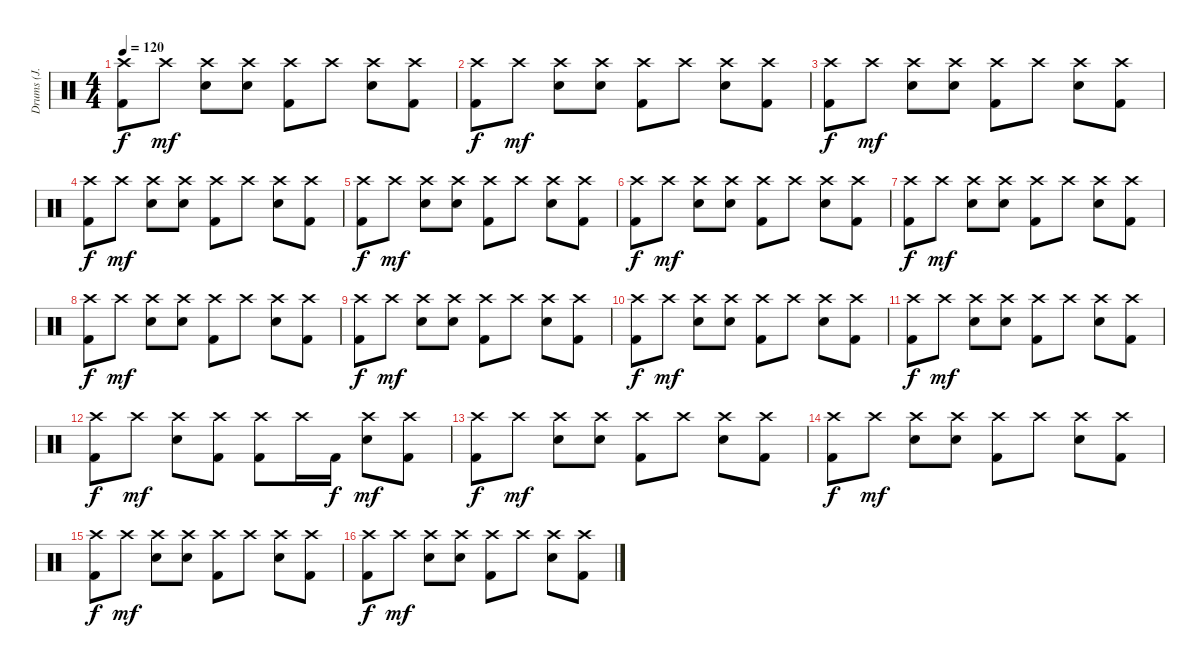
\track ("Drums (J. Cramer)" "Drums (J. ") {instrument percussion}
\staff {score}
\articulation defaults
\ts (4 4)
\tempo 120
\clef neutral
\ks c
("Crash high (hit)" "Kick (hit) 2").8{dy f} "Crash high (hit)".8{dy mf} ("Crash high (hit)" "Electric Snare (hit)").8 ("Crash high (hit)" "Electric Snare (hit)").8 ("Crash high (hit)" "Kick (hit) 2").8 "Crash high (hit)".8 ("Crash high (hit)" "Electric Snare (hit)").8 ("Crash high (hit)" "Kick (hit) 2").8 |
("Crash high (hit)" "Kick (hit) 2").8{dy f} "Crash high (hit)".8{dy mf} ("Crash high (hit)" "Electric Snare (hit)").8 ("Crash high (hit)" "Electric Snare (hit)").8 ("Crash high (hit)" "Kick (hit) 2").8 "Crash high (hit)".8 ("Crash high (hit)" "Electric Snare (hit)").8 ("Crash high (hit)" "Kick (hit) 2").8 |
("Crash high (hit)" "Kick (hit) 2").8{dy f} "Crash high (hit)".8{dy mf} ("Crash high (hit)" "Electric Snare (hit)").8 ("Crash high (hit)" "Electric Snare (hit)").8 ("Crash high (hit)" "Kick (hit) 2").8 "Crash high (hit)".8 ("Crash high (hit)" "Electric Snare (hit)").8 ("Crash high (hit)" "Kick (hit) 2").8 |
("Crash high (hit)" "Kick (hit) 2").8{dy f} "Crash high (hit)".8{dy mf} ("Crash high (hit)" "Electric Snare (hit)").8 ("Crash high (hit)" "Electric Snare (hit)").8 ("Crash high (hit)" "Kick (hit) 2").8 "Crash high (hit)".8 ("Crash high (hit)" "Electric Snare (hit)").8 ("Crash high (hit)" "Kick (hit) 2").8 |
("Crash high (hit)" "Kick (hit) 2").8{dy f} "Crash high (hit)".8{dy mf} ("Crash high (hit)" "Electric Snare (hit)").8 ("Crash high (hit)" "Electric Snare (hit)").8 ("Crash high (hit)" "Kick (hit) 2").8 "Crash high (hit)".8 ("Crash high (hit)" "Electric Snare (hit)").8 ("Crash high (hit)" "Kick (hit) 2").8 |
("Crash high (hit)" "Kick (hit) 2").8{dy f} "Crash high (hit)".8{dy mf} ("Crash high (hit)" "Electric Snare (hit)").8 ("Crash high (hit)" "Electric Snare (hit)").8 ("Crash high (hit)" "Kick (hit) 2").8 "Crash high (hit)".8 ("Crash high (hit)" "Electric Snare (hit)").8 ("Crash high (hit)" "Kick (hit) 2").8 |
("Crash high (hit)" "Kick (hit) 2").8{dy f} "Crash high (hit)".8{dy mf} ("Crash high (hit)" "Electric Snare (hit)").8 ("Crash high (hit)" "Electric Snare (hit)").8 ("Crash high (hit)" "Kick (hit) 2").8 "Crash high (hit)".8 ("Crash high (hit)" "Electric Snare (hit)").8 ("Crash high (hit)" "Kick (hit) 2").8 |
("Crash high (hit)" "Kick (hit) 2").8{dy f} "Crash high (hit)".8{dy mf} ("Crash high (hit)" "Electric Snare (hit)").8 ("Crash high (hit)" "Electric Snare (hit)").8 ("Crash high (hit)" "Kick (hit) 2").8 "Crash high (hit)".8 ("Crash high (hit)" "Electric Snare (hit)").8 ("Crash high (hit)" "Kick (hit) 2").8 |
("Crash high (hit)" "Kick (hit) 2").8{dy f} "Crash high (hit)".8{dy mf} ("Crash high (hit)" "Electric Snare (hit)").8 ("Crash high (hit)" "Electric Snare (hit)").8 ("Crash high (hit)" "Kick (hit) 2").8 "Crash high (hit)".8 ("Crash high (hit)" "Electric Snare (hit)").8 ("Crash high (hit)" "Kick (hit) 2").8 |
("Crash high (hit)" "Kick (hit) 2").8{dy f} "Crash high (hit)".8{dy mf} ("Crash high (hit)" "Electric Snare (hit)").8 ("Crash high (hit)" "Electric Snare (hit)").8 ("Crash high (hit)" "Kick (hit) 2").8 "Crash high (hit)".8 ("Crash high (hit)" "Electric Snare (hit)").8 ("Crash high (hit)" "Kick (hit) 2").8 |
("Crash high (hit)" "Kick (hit) 2").8{dy f} "Crash high (hit)".8{dy mf} ("Crash high (hit)" "Electric Snare (hit)").8 ("Crash high (hit)" "Electric Snare (hit)").8 ("Crash high (hit)" "Kick (hit) 2").8 "Crash high (hit)".8 ("Crash high (hit)" "Electric Snare (hit)").8 ("Crash high (hit)" "Kick (hit) 2").8 |
("Crash high (hit)" "Kick (hit) 2").8{dy f} "Crash high (hit)".8{dy mf} ("Crash high (hit)" "Electric Snare (hit)").8 ("Crash high (hit)" "Kick (hit) 2").8 ("Crash high (hit)" "Kick (hit) 2").8 "Crash high (hit)".16 "Kick (hit) 2".16{dy f} ("Crash high (hit)" "Electric Snare (hit)").8{dy mf} ("Crash high (hit)" "Kick (hit) 2").8 |
("Crash high (hit)" "Kick (hit) 2").8{dy f} "Crash high (hit)".8{dy mf} ("Crash high (hit)" "Electric Snare (hit)").8 ("Crash high (hit)" "Electric Snare (hit)").8 ("Crash high (hit)" "Kick (hit) 2").8 "Crash high (hit)".8 ("Crash high (hit)" "Electric Snare (hit)").8 ("Crash high (hit)" "Kick (hit) 2").8 |
("Crash high (hit)" "Kick (hit) 2").8{dy f} "Crash high (hit)".8{dy mf} ("Crash high (hit)" "Electric Snare (hit)").8 ("Crash high (hit)" "Electric Snare (hit)").8 ("Crash high (hit)" "Kick (hit) 2").8 "Crash high (hit)".8 ("Crash high (hit)" "Electric Snare (hit)").8 ("Crash high (hit)" "Kick (hit) 2").8 |
("Crash high (hit)" "Kick (hit) 2").8{dy f} "Crash high (hit)".8{dy mf} ("Crash high (hit)" "Electric Snare (hit)").8 ("Crash high (hit)" "Electric Snare (hit)").8 ("Crash high (hit)" "Kick (hit) 2").8 "Crash high (hit)".8 ("Crash high (hit)" "Electric Snare (hit)").8 ("Crash high (hit)" "Kick (hit) 2").8 |
("Crash high (hit)" "Kick (hit) 2").8{dy f} "Crash high (hit)".8{dy mf} ("Crash high (hit)" "Electric Snare (hit)").8 ("Crash high (hit)" "Electric Snare (hit)").8 ("Crash high (hit)" "Kick (hit) 2").8 "Crash high (hit)".8 ("Crash high (hit)" "Electric Snare (hit)").8 ("Crash high (hit)" "Kick (hit) 2").8
